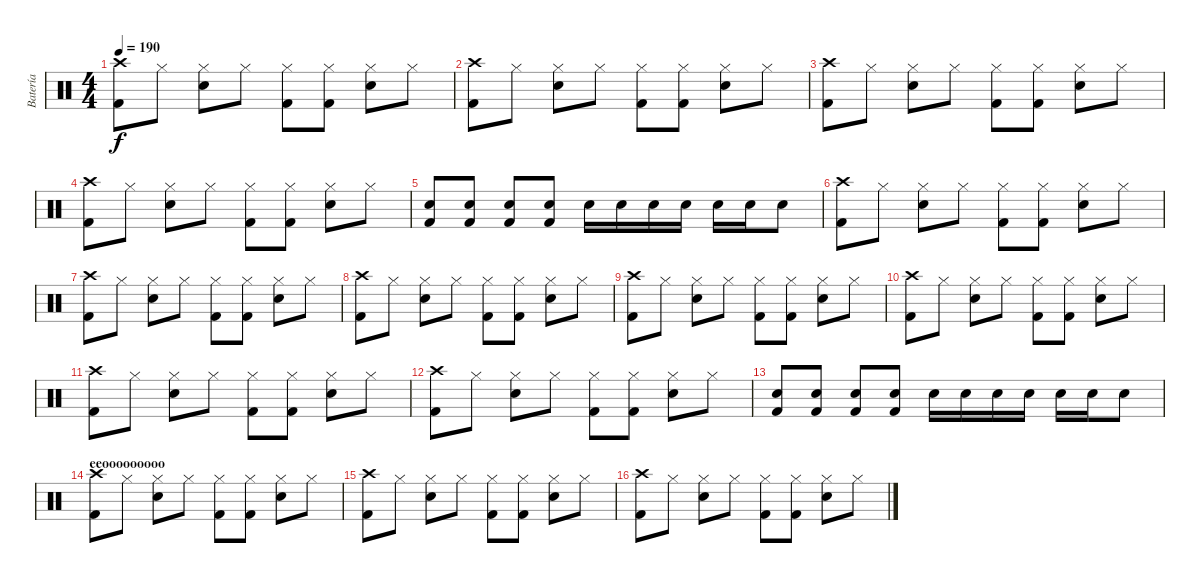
\track ("Batería" "Batería") {instrument percussion}
\staff {score}
\articulation defaults
\ts (4 4)
\tempo 190
\clef neutral
\ks c
("Crash high (hit)" "Kick (hit) 2").8{dy f} "Hi-Hat (closed)".8 ("Hi-Hat (closed)" "Snare (hit) 2").8 "Hi-Hat (closed)".8 ("Hi-Hat (closed)" "Kick (hit) 2").8 ("Hi-Hat (closed)" "Kick (hit) 2").8 ("Hi-Hat (closed)" "Snare (hit) 2").8 "Hi-Hat (closed)".8 |
("Crash high (hit)" "Kick (hit) 2").8 "Hi-Hat (closed)".8 ("Hi-Hat (closed)" "Snare (hit) 2").8 "Hi-Hat (closed)".8 ("Hi-Hat (closed)" "Kick (hit) 2").8 ("Hi-Hat (closed)" "Kick (hit) 2").8 ("Hi-Hat (closed)" "Snare (hit) 2").8 "Hi-Hat (closed)".8 |
("Crash high (hit)" "Kick (hit) 2").8 "Hi-Hat (closed)".8 ("Hi-Hat (closed)" "Snare (hit) 2").8 "Hi-Hat (closed)".8 ("Hi-Hat (closed)" "Kick (hit) 2").8 ("Hi-Hat (closed)" "Kick (hit) 2").8 ("Hi-Hat (closed)" "Snare (hit) 2").8 "Hi-Hat (closed)".8 |
("Crash high (hit)" "Kick (hit) 2").8 "Hi-Hat (closed)".8 ("Hi-Hat (closed)" "Snare (hit) 2").8 "Hi-Hat (closed)".8 ("Hi-Hat (closed)" "Kick (hit) 2").8 ("Hi-Hat (closed)" "Kick (hit) 2").8 ("Hi-Hat (closed)" "Snare (hit) 2").8 "Hi-Hat (closed)".8 |
("Snare (hit) 2" "Kick (hit) 2").8 ("Snare (hit) 2" "Kick (hit) 2").8 ("Snare (hit) 2" "Kick (hit) 2").8 ("Snare (hit) 2" "Kick (hit) 2").8 "Snare (hit) 2".16 "Snare (hit) 2".16 "Snare (hit) 2".16 "Snare (hit) 2".16 "Snare (hit) 2".16 "Snare (hit) 2".16 "Snare (hit) 2".8 |
("Crash high (hit)" "Kick (hit) 2").8 "Hi-Hat (closed)".8 ("Hi-Hat (closed)" "Snare (hit) 2").8 "Hi-Hat (closed)".8 ("Hi-Hat (closed)" "Kick (hit) 2").8 ("Hi-Hat (closed)" "Kick (hit) 2").8 ("Hi-Hat (closed)" "Snare (hit) 2").8 "Hi-Hat (closed)".8 |
("Crash high (hit)" "Kick (hit) 2").8 "Hi-Hat (closed)".8 ("Hi-Hat (closed)" "Snare (hit) 2").8 "Hi-Hat (closed)".8 ("Hi-Hat (closed)" "Kick (hit) 2").8 ("Hi-Hat (closed)" "Kick (hit) 2").8 ("Hi-Hat (closed)" "Snare (hit) 2").8 "Hi-Hat (closed)".8 |
("Crash high (hit)" "Kick (hit) 2").8 "Hi-Hat (closed)".8 ("Hi-Hat (closed)" "Snare (hit) 2").8 "Hi-Hat (closed)".8 ("Hi-Hat (closed)" "Kick (hit) 2").8 ("Hi-Hat (closed)" "Kick (hit) 2").8 ("Hi-Hat (closed)" "Snare (hit) 2").8 "Hi-Hat (closed)".8 |
("Crash high (hit)" "Kick (hit) 2").8 "Hi-Hat (closed)".8 ("Hi-Hat (closed)" "Snare (hit) 2").8 "Hi-Hat (closed)".8 ("Hi-Hat (closed)" "Kick (hit) 2").8 ("Hi-Hat (closed)" "Kick (hit) 2").8 ("Hi-Hat (closed)" "Snare (hit) 2").8 "Hi-Hat (closed)".8 |
("Crash high (hit)" "Kick (hit) 2").8 "Hi-Hat (closed)".8 ("Hi-Hat (closed)" "Snare (hit) 2").8 "Hi-Hat (closed)".8 ("Hi-Hat (closed)" "Kick (hit) 2").8 ("Hi-Hat (closed)" "Kick (hit) 2").8 ("Hi-Hat (closed)" "Snare (hit) 2").8 "Hi-Hat (closed)".8 |
("Crash high (hit)" "Kick (hit) 2").8 "Hi-Hat (closed)".8 ("Hi-Hat (closed)" "Snare (hit) 2").8 "Hi-Hat (closed)".8 ("Hi-Hat (closed)" "Kick (hit) 2").8 ("Hi-Hat (closed)" "Kick (hit) 2").8 ("Hi-Hat (closed)" "Snare (hit) 2").8 "Hi-Hat (closed)".8 |
("Crash high (hit)" "Kick (hit) 2").8 "Hi-Hat (closed)".8 ("Hi-Hat (closed)" "Snare (hit) 2").8 "Hi-Hat (closed)".8 ("Hi-Hat (closed)" "Kick (hit) 2").8 ("Hi-Hat (closed)" "Kick (hit) 2").8 ("Hi-Hat (closed)" "Snare (hit) 2").8 "Hi-Hat (closed)".8 |
("Snare (hit) 2" "Kick (hit) 2").8 ("Snare (hit) 2" "Kick (hit) 2").8 ("Snare (hit) 2" "Kick (hit) 2").8 ("Snare (hit) 2" "Kick (hit) 2").8 "Snare (hit) 2".16 "Snare (hit) 2".16 "Snare (hit) 2".16 "Snare (hit) 2".16 "Snare (hit) 2".16 "Snare (hit) 2".16 "Snare (hit) 2".8 |
\section ("" "eeooooooooo")
("Crash high (hit)" "Kick (hit) 2").8 "Hi-Hat (closed)".8 ("Hi-Hat (closed)" "Snare (hit) 2").8 "Hi-Hat (closed)".8 ("Hi-Hat (closed)" "Kick (hit) 2").8 ("Hi-Hat (closed)" "Kick (hit) 2").8 ("Hi-Hat (closed)" "Snare (hit) 2").8 "Hi-Hat (closed)".8 |
("Crash high (hit)" "Kick (hit) 2").8 "Hi-Hat (closed)".8 ("Hi-Hat (closed)" "Snare (hit) 2").8 "Hi-Hat (closed)".8 ("Hi-Hat (closed)" "Kick (hit) 2").8 ("Hi-Hat (closed)" "Kick (hit) 2").8 ("Hi-Hat (closed)" "Snare (hit) 2").8 "Hi-Hat (closed)".8 |
("Crash high (hit)" "Kick (hit) 2").8 "Hi-Hat (closed)".8 ("Hi-Hat (closed)" "Snare (hit) 2").8 "Hi-Hat (closed)".8 ("Hi-Hat (closed)" "Kick (hit) 2").8 ("Hi-Hat (closed)" "Kick (hit) 2").8 ("Hi-Hat (closed)" "Snare (hit) 2").8 "Hi-Hat (closed)".8
